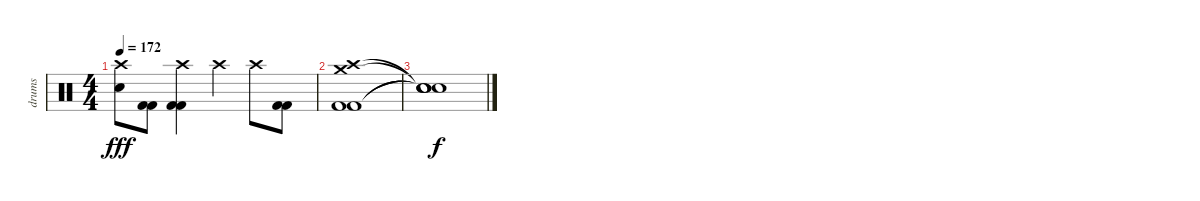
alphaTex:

\track ("drums" "drums") {instrument percussion}
\staff {score}
\articulation defaults
\ts (4 4)
\tempo 172
\clef neutral
\ks c
("Electric Snare (hit)" "Crash high (hit)").8{dy fff} ("Kick (hit) 2" "Kick (hit) 2").8 ("Kick (hit) 2" "Kick (hit) 2" "Crash high (hit)").4 "Crash high (hit)".4 "Crash high (hit)".8 ("Kick (hit) 2" "Kick (hit) 2").8 |
("Kick (hit) 2" "Kick (hit) 2" "Crash medium (hit)" "Crash high (hit)").1 |
("Snare (hit)"{t} "Snare (hit)"{t} "Snare (hit)"{t} "Snare (hit)"{t}).1{dy f}
